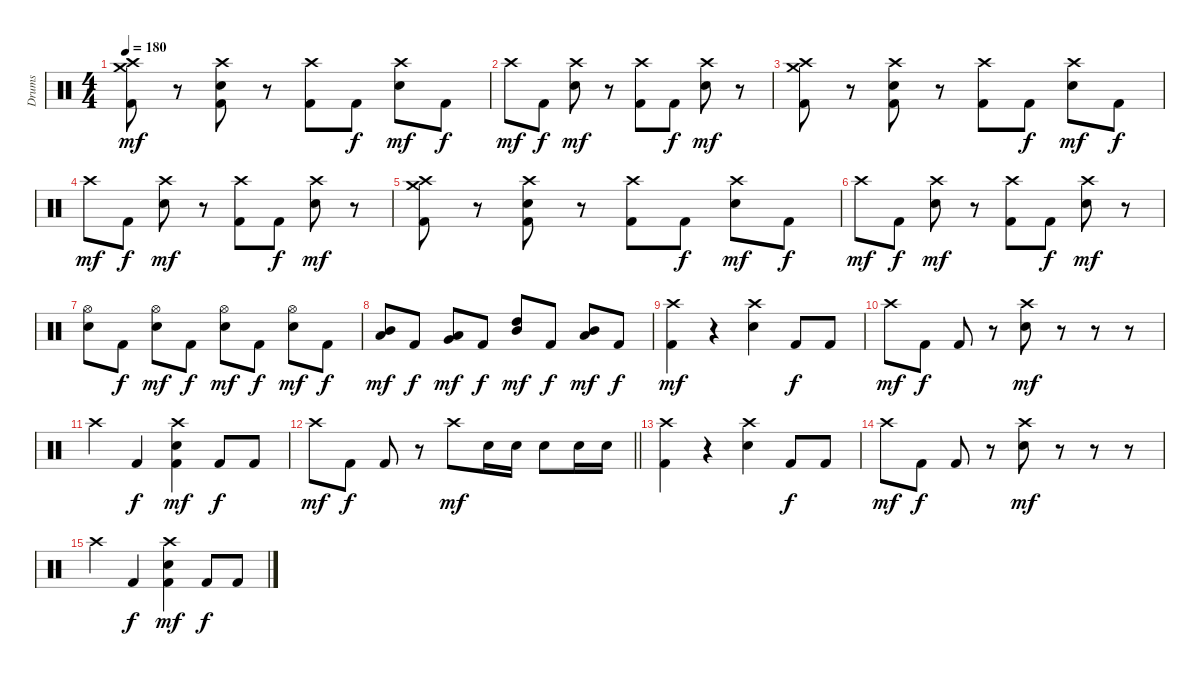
\track ("Drums" "Drums") {instrument percussion}
\staff {score}
\articulation defaults
\ts (4 4)
\tempo 180
\clef neutral
\ks c
("Crash high (hit)" "Crash medium (hit)" "Kick (hit) 2").8{dy mf} r.8 ("Crash high (hit)" "Electric Snare (hit)" "Kick (hit) 2").8 r.8 ("Crash high (hit)" "Kick (hit) 2").8 "Kick (hit) 2".8{dy f} ("Crash high (hit)" "Electric Snare (hit)").8{dy mf} "Kick (hit) 2".8{dy f} |
"Crash high (hit)".8{dy mf} "Kick (hit) 2".8{dy f} ("Crash high (hit)" "Electric Snare (hit)").8{dy mf} r.8 ("Crash high (hit)" "Kick (hit) 2").8 "Kick (hit) 2".8{dy f} ("Crash high (hit)" "Electric Snare (hit)").8{dy mf} r.8 |
("Crash high (hit)" "Crash medium (hit)" "Kick (hit) 2").8 r.8 ("Crash high (hit)" "Electric Snare (hit)" "Kick (hit) 2").8 r.8 ("Crash high (hit)" "Kick (hit) 2").8 "Kick (hit) 2".8{dy f} ("Crash high (hit)" "Electric Snare (hit)").8{dy mf} "Kick (hit) 2".8{dy f} |
"Crash high (hit)".8{dy mf} "Kick (hit) 2".8{dy f} ("Crash high (hit)" "Electric Snare (hit)").8{dy mf} r.8 ("Crash high (hit)" "Kick (hit) 2").8 "Kick (hit) 2".8{dy f} ("Crash high (hit)" "Electric Snare (hit)").8{dy mf} r.8 |
("Crash high (hit)" "Crash medium (hit)" "Kick (hit) 2").8 r.8 ("Crash high (hit)" "Electric Snare (hit)" "Kick (hit) 2").8 r.8 ("Crash high (hit)" "Kick (hit) 2").8 "Kick (hit) 2".8{dy f} ("Crash high (hit)" "Electric Snare (hit)").8{dy mf} "Kick (hit) 2".8{dy f} |
"Crash high (hit)".8{dy mf} "Kick (hit) 2".8{dy f} ("Crash high (hit)" "Electric Snare (hit)").8{dy mf} r.8 ("Crash high (hit)" "Kick (hit) 2").8 "Kick (hit) 2".8{dy f} ("Crash high (hit)" "Electric Snare (hit)").8{dy mf} r.8 |
("Hi-Hat (open)" "Electric Snare (hit)").8 "Kick (hit) 2".8{dy f} ("Hi-Hat (open)" "Electric Snare (hit)").8{dy mf} "Kick (hit) 2".8{dy f} ("Hi-Hat (open)" "Electric Snare (hit)").8{dy mf} "Kick (hit) 2".8{dy f} ("Hi-Hat (open)" "Electric Snare (hit)").8{dy mf} "Kick (hit) 2".8{dy f} |
("Low Tom (hit)" "Mid Tom (hit)").8{dy mf} "Kick (hit) 2".8{dy f} ("Very Low Tom (hit)" "Low Tom (hit)").8{dy mf} "Kick (hit) 2".8{dy f} ("High Tom (hit)" "Mid Tom (hit)").8{dy mf} "Kick (hit) 2".8{dy f} ("Low Tom (hit)" "Mid Tom (hit)").8{dy mf} "Kick (hit) 2".8{dy f} |
("Crash high (hit)" "Kick (hit) 2").4{dy mf} r.4 ("Crash high (hit)" "Electric Snare (hit)").4 "Kick (hit) 2".8{dy f} "Kick (hit) 2".8 |
"Crash high (hit)".8{dy mf} "Kick (hit) 2".8{dy f} "Kick (hit) 2".8 r.8 ("Crash high (hit)" "Electric Snare (hit)").8{dy mf} r.8 r.8 r.8 |
"Crash high (hit)".4 "Kick (hit) 2".4{dy f} ("Crash high (hit)" "Electric Snare (hit)" "Kick (hit) 2").4{dy mf} "Kick (hit) 2".8{dy f} "Kick (hit) 2".8 |
\barLineRight lightlight "Crash high (hit)".8{dy mf} "Kick (hit) 2".8{dy f} "Kick (hit) 2".8
r.8 "Crash high (hit)".8{dy mf} "Electric Snare (hit)".16 "Electric Snare (hit)".16 "Electric Snare (hit)".8 "Electric Snare (hit)".16 "Electric Snare (hit)".16 |
("Crash high (hit)" "Kick (hit) 2").4 r.4 ("Crash high (hit)" "Electric Snare (hit)").4 "Kick (hit) 2".8{dy f} "Kick (hit) 2".8 |
"Crash high (hit)".8{dy mf} "Kick (hit) 2".8{dy f} "Kick (hit) 2".8 r.8 ("Crash high (hit)" "Electric Snare (hit)").8{dy mf} r.8 r.8 r.8 |
"Crash high (hit)".4 "Kick (hit) 2".4{dy f} ("Crash high (hit)" "Electric Snare (hit)" "Kick (hit) 2").4{dy mf} "Kick (hit) 2".8{dy f} "Kick (hit) 2".8
